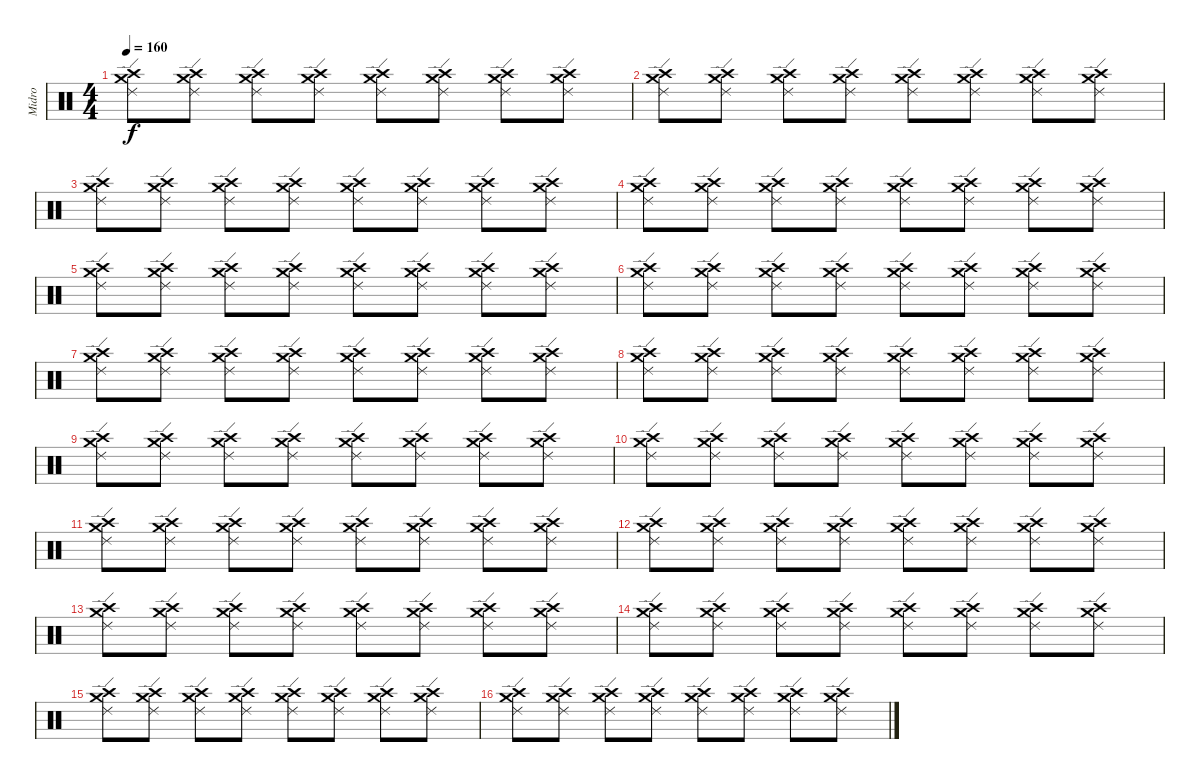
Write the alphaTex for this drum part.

\track ("Midro" "Midro") {instrument percussion}
\staff {score}
\articulation defaults
\ts (4 4)
\tempo 160
\clef neutral
\ks c
("Ride (edge) 2" "Crash medium (hit)" "Crash high (hit)").8{dy f} ("Ride (edge) 2" "Crash medium (hit)" "Crash high (hit)").8 ("Ride (edge) 2" "Crash medium (hit)" "Crash high (hit)").8 ("Ride (edge) 2" "Crash medium (hit)" "Crash high (hit)").8 ("Ride (edge) 2" "Crash medium (hit)" "Crash high (hit)").8 ("Ride (edge) 2" "Crash medium (hit)" "Crash high (hit)").8 ("Ride (edge) 2" "Crash medium (hit)" "Crash high (hit)").8 ("Ride (edge) 2" "Crash medium (hit)" "Crash high (hit)").8 |
("Ride (edge) 2" "Crash medium (hit)" "Crash high (hit)").8 ("Ride (edge) 2" "Crash medium (hit)" "Crash high (hit)").8 ("Ride (edge) 2" "Crash medium (hit)" "Crash high (hit)").8 ("Ride (edge) 2" "Crash medium (hit)" "Crash high (hit)").8 ("Ride (edge) 2" "Crash medium (hit)" "Crash high (hit)").8 ("Ride (edge) 2" "Crash medium (hit)" "Crash high (hit)").8 ("Ride (edge) 2" "Crash medium (hit)" "Crash high (hit)").8 ("Ride (edge) 2" "Crash medium (hit)" "Crash high (hit)").8 |
("Ride (edge) 2" "Crash medium (hit)" "Crash high (hit)").8 ("Ride (edge) 2" "Crash medium (hit)" "Crash high (hit)").8 ("Ride (edge) 2" "Crash medium (hit)" "Crash high (hit)").8 ("Ride (edge) 2" "Crash medium (hit)" "Crash high (hit)").8 ("Ride (edge) 2" "Crash medium (hit)" "Crash high (hit)").8 ("Ride (edge) 2" "Crash medium (hit)" "Crash high (hit)").8 ("Ride (edge) 2" "Crash medium (hit)" "Crash high (hit)").8 ("Ride (edge) 2" "Crash medium (hit)" "Crash high (hit)").8 |
("Ride (edge) 2" "Crash medium (hit)" "Crash high (hit)").8 ("Ride (edge) 2" "Crash medium (hit)" "Crash high (hit)").8 ("Ride (edge) 2" "Crash medium (hit)" "Crash high (hit)").8 ("Ride (edge) 2" "Crash medium (hit)" "Crash high (hit)").8 ("Ride (edge) 2" "Crash medium (hit)" "Crash high (hit)").8 ("Ride (edge) 2" "Crash medium (hit)" "Crash high (hit)").8 ("Ride (edge) 2" "Crash medium (hit)" "Crash high (hit)").8 ("Ride (edge) 2" "Crash medium (hit)" "Crash high (hit)").8 |
("Ride (edge) 2" "Crash medium (hit)" "Crash high (hit)").8 ("Ride (edge) 2" "Crash medium (hit)" "Crash high (hit)").8 ("Ride (edge) 2" "Crash medium (hit)" "Crash high (hit)").8 ("Ride (edge) 2" "Crash medium (hit)" "Crash high (hit)").8 ("Ride (edge) 2" "Crash medium (hit)" "Crash high (hit)").8 ("Ride (edge) 2" "Crash medium (hit)" "Crash high (hit)").8 ("Ride (edge) 2" "Crash medium (hit)" "Crash high (hit)").8 ("Ride (edge) 2" "Crash medium (hit)" "Crash high (hit)").8 |
("Ride (edge) 2" "Crash medium (hit)" "Crash high (hit)").8 ("Ride (edge) 2" "Crash medium (hit)" "Crash high (hit)").8 ("Ride (edge) 2" "Crash medium (hit)" "Crash high (hit)").8 ("Ride (edge) 2" "Crash medium (hit)" "Crash high (hit)").8 ("Ride (edge) 2" "Crash medium (hit)" "Crash high (hit)").8 ("Ride (edge) 2" "Crash medium (hit)" "Crash high (hit)").8 ("Ride (edge) 2" "Crash medium (hit)" "Crash high (hit)").8 ("Ride (edge) 2" "Crash medium (hit)" "Crash high (hit)").8 |
("Ride (edge) 2" "Crash medium (hit)" "Crash high (hit)").8 ("Ride (edge) 2" "Crash medium (hit)" "Crash high (hit)").8 ("Ride (edge) 2" "Crash medium (hit)" "Crash high (hit)").8 ("Ride (edge) 2" "Crash medium (hit)" "Crash high (hit)").8 ("Ride (edge) 2" "Crash medium (hit)" "Crash high (hit)").8 ("Ride (edge) 2" "Crash medium (hit)" "Crash high (hit)").8 ("Ride (edge) 2" "Crash medium (hit)" "Crash high (hit)").8 ("Ride (edge) 2" "Crash medium (hit)" "Crash high (hit)").8 |
("Ride (edge) 2" "Crash medium (hit)" "Crash high (hit)").8 ("Ride (edge) 2" "Crash medium (hit)" "Crash high (hit)").8 ("Ride (edge) 2" "Crash medium (hit)" "Crash high (hit)").8 ("Ride (edge) 2" "Crash medium (hit)" "Crash high (hit)").8 ("Ride (edge) 2" "Crash medium (hit)" "Crash high (hit)").8 ("Ride (edge) 2" "Crash medium (hit)" "Crash high (hit)").8 ("Ride (edge) 2" "Crash medium (hit)" "Crash high (hit)").8 ("Ride (edge) 2" "Crash medium (hit)" "Crash high (hit)").8 |
("Ride (edge) 2" "Crash medium (hit)" "Crash high (hit)").8 ("Ride (edge) 2" "Crash medium (hit)" "Crash high (hit)").8 ("Ride (edge) 2" "Crash medium (hit)" "Crash high (hit)").8 ("Ride (edge) 2" "Crash medium (hit)" "Crash high (hit)").8 ("Ride (edge) 2" "Crash medium (hit)" "Crash high (hit)").8 ("Ride (edge) 2" "Crash medium (hit)" "Crash high (hit)").8 ("Ride (edge) 2" "Crash medium (hit)" "Crash high (hit)").8 ("Ride (edge) 2" "Crash medium (hit)" "Crash high (hit)").8 |
("Ride (edge) 2" "Crash medium (hit)" "Crash high (hit)").8 ("Ride (edge) 2" "Crash medium (hit)" "Crash high (hit)").8 ("Ride (edge) 2" "Crash medium (hit)" "Crash high (hit)").8 ("Ride (edge) 2" "Crash medium (hit)" "Crash high (hit)").8 ("Ride (edge) 2" "Crash medium (hit)" "Crash high (hit)").8 ("Ride (edge) 2" "Crash medium (hit)" "Crash high (hit)").8 ("Ride (edge) 2" "Crash medium (hit)" "Crash high (hit)").8 ("Ride (edge) 2" "Crash medium (hit)" "Crash high (hit)").8 |
("Ride (edge) 2" "Crash medium (hit)" "Crash high (hit)").8 ("Ride (edge) 2" "Crash medium (hit)" "Crash high (hit)").8 ("Ride (edge) 2" "Crash medium (hit)" "Crash high (hit)").8 ("Ride (edge) 2" "Crash medium (hit)" "Crash high (hit)").8 ("Ride (edge) 2" "Crash medium (hit)" "Crash high (hit)").8 ("Ride (edge) 2" "Crash medium (hit)" "Crash high (hit)").8 ("Ride (edge) 2" "Crash medium (hit)" "Crash high (hit)").8 ("Ride (edge) 2" "Crash medium (hit)" "Crash high (hit)").8 |
("Ride (edge) 2" "Crash medium (hit)" "Crash high (hit)").8 ("Ride (edge) 2" "Crash medium (hit)" "Crash high (hit)").8 ("Ride (edge) 2" "Crash medium (hit)" "Crash high (hit)").8 ("Ride (edge) 2" "Crash medium (hit)" "Crash high (hit)").8 ("Ride (edge) 2" "Crash medium (hit)" "Crash high (hit)").8 ("Ride (edge) 2" "Crash medium (hit)" "Crash high (hit)").8 ("Ride (edge) 2" "Crash medium (hit)" "Crash high (hit)").8 ("Ride (edge) 2" "Crash medium (hit)" "Crash high (hit)").8 |
("Ride (edge) 2" "Crash medium (hit)" "Crash high (hit)").8 ("Ride (edge) 2" "Crash medium (hit)" "Crash high (hit)").8 ("Ride (edge) 2" "Crash medium (hit)" "Crash high (hit)").8 ("Ride (edge) 2" "Crash medium (hit)" "Crash high (hit)").8 ("Ride (edge) 2" "Crash medium (hit)" "Crash high (hit)").8 ("Ride (edge) 2" "Crash medium (hit)" "Crash high (hit)").8 ("Ride (edge) 2" "Crash medium (hit)" "Crash high (hit)").8 ("Ride (edge) 2" "Crash medium (hit)" "Crash high (hit)").8 |
("Ride (edge) 2" "Crash medium (hit)" "Crash high (hit)").8 ("Ride (edge) 2" "Crash medium (hit)" "Crash high (hit)").8 ("Ride (edge) 2" "Crash medium (hit)" "Crash high (hit)").8 ("Ride (edge) 2" "Crash medium (hit)" "Crash high (hit)").8 ("Ride (edge) 2" "Crash medium (hit)" "Crash high (hit)").8 ("Ride (edge) 2" "Crash medium (hit)" "Crash high (hit)").8 ("Ride (edge) 2" "Crash medium (hit)" "Crash high (hit)").8 ("Ride (edge) 2" "Crash medium (hit)" "Crash high (hit)").8 |
("Ride (edge) 2" "Crash medium (hit)" "Crash high (hit)").8 ("Ride (edge) 2" "Crash medium (hit)" "Crash high (hit)").8 ("Ride (edge) 2" "Crash medium (hit)" "Crash high (hit)").8 ("Ride (edge) 2" "Crash medium (hit)" "Crash high (hit)").8 ("Ride (edge) 2" "Crash medium (hit)" "Crash high (hit)").8 ("Ride (edge) 2" "Crash medium (hit)" "Crash high (hit)").8 ("Ride (edge) 2" "Crash medium (hit)" "Crash high (hit)").8 ("Ride (edge) 2" "Crash medium (hit)" "Crash high (hit)").8 |
("Ride (edge) 2" "Crash medium (hit)" "Crash high (hit)").8 ("Ride (edge) 2" "Crash medium (hit)" "Crash high (hit)").8 ("Ride (edge) 2" "Crash medium (hit)" "Crash high (hit)").8 ("Ride (edge) 2" "Crash medium (hit)" "Crash high (hit)").8 ("Ride (edge) 2" "Crash medium (hit)" "Crash high (hit)").8 ("Ride (edge) 2" "Crash medium (hit)" "Crash high (hit)").8 ("Ride (edge) 2" "Crash medium (hit)" "Crash high (hit)").8 ("Ride (edge) 2" "Crash medium (hit)" "Crash high (hit)").8
